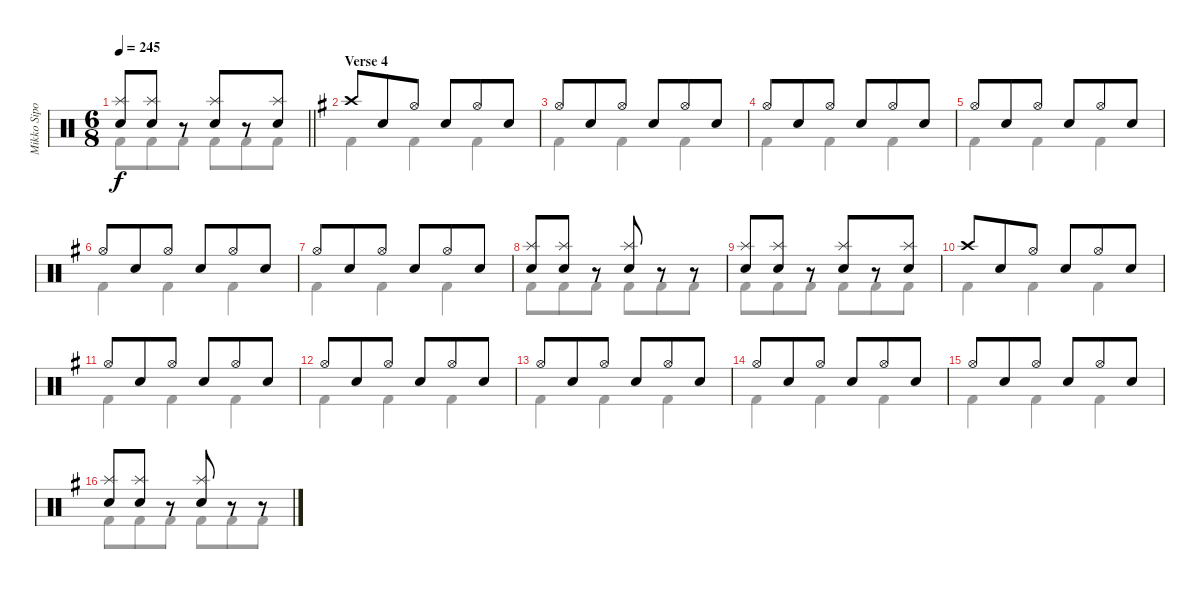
\track ("Mikko Sipola (drums)" "Mikko Sipo") {instrument percussion}
\staff {score}
\articulation defaults
\voice
\ts (6 8)
\tempo 245
\clef neutral
\barLineRight lightlight
\ks aminor
("Splash (hit)" "Snare (hit) 2").8{dy f} ("Splash (hit)" "Snare (hit) 2").8 r.8 ("Splash (hit)" "Snare (hit) 2").8 r.8 ("Splash (hit)" "Snare (hit) 2").8 |
\section ("" "Verse 4")
\ks eminor "Crash high (hit)".8 "Snare (hit) 2".8 "Hi-Hat (open)".8 "Snare (hit) 2".8 "Hi-Hat (open)".8 "Snare (hit) 2".8
|
"Hi-Hat (open)".8 "Snare (hit) 2".8 "Hi-Hat (open)".8 "Snare (hit) 2".8 "Hi-Hat (open)".8 "Snare (hit) 2".8 |
"Hi-Hat (open)".8 "Snare (hit) 2".8 "Hi-Hat (open)".8 "Snare (hit) 2".8 "Hi-Hat (open)".8 "Snare (hit) 2".8 |
"Hi-Hat (open)".8 "Snare (hit) 2".8 "Hi-Hat (open)".8 "Snare (hit) 2".8 "Hi-Hat (open)".8 "Snare (hit) 2".8 |
"Hi-Hat (open)".8 "Snare (hit) 2".8 "Hi-Hat (open)".8 "Snare (hit) 2".8 "Hi-Hat (open)".8 "Snare (hit) 2".8 |
"Hi-Hat (open)".8 "Snare (hit) 2".8 "Hi-Hat (open)".8 "Snare (hit) 2".8 "Hi-Hat (open)".8 "Snare (hit) 2".8 |
("Splash (hit)" "Snare (hit) 2").8 ("Splash (hit)" "Snare (hit) 2").8 r.8 ("Splash (hit)" "Snare (hit) 2").8 r.8 r.8 |
("Splash (hit)" "Snare (hit) 2").8 ("Splash (hit)" "Snare (hit) 2").8 r.8 ("Splash (hit)" "Snare (hit) 2").8 r.8 ("Splash (hit)" "Snare (hit) 2").8 |
"Crash high (hit)".8 "Snare (hit) 2".8 "Hi-Hat (open)".8 "Snare (hit) 2".8 "Hi-Hat (open)".8 "Snare (hit) 2".8 |
"Hi-Hat (open)".8 "Snare (hit) 2".8 "Hi-Hat (open)".8 "Snare (hit) 2".8 "Hi-Hat (open)".8 "Snare (hit) 2".8 |
"Hi-Hat (open)".8 "Snare (hit) 2".8 "Hi-Hat (open)".8 "Snare (hit) 2".8 "Hi-Hat (open)".8 "Snare (hit) 2".8 |
"Hi-Hat (open)".8 "Snare (hit) 2".8 "Hi-Hat (open)".8 "Snare (hit) 2".8 "Hi-Hat (open)".8 "Snare (hit) 2".8 |
"Hi-Hat (open)".8 "Snare (hit) 2".8 "Hi-Hat (open)".8 "Snare (hit) 2".8 "Hi-Hat (open)".8 "Snare (hit) 2".8 |
"Hi-Hat (open)".8 "Snare (hit) 2".8 "Hi-Hat (open)".8 "Snare (hit) 2".8 "Hi-Hat (open)".8 "Snare (hit) 2".8 |
("Splash (hit)" "Snare (hit) 2").8 ("Splash (hit)" "Snare (hit) 2").8 r.8 ("Splash (hit)" "Snare (hit) 2").8 r.8 r.8
\voice
\clef neutral
\ottava regular
\simile none
\barLineRight lightlight
\ks aminor "Kick (hit) 2".8{dy f} "Kick (hit) 2".8 "Kick (hit) 2".8 "Kick (hit) 2".8 "Kick (hit) 2".8 "Kick (hit) 2".8
|
\ks eminor "Kick (hit) 2".4 "Kick (hit) 2".4 "Kick (hit) 2".4
|
"Kick (hit) 2".4 "Kick (hit) 2".4 "Kick (hit) 2".4 |
"Kick (hit) 2".4 "Kick (hit) 2".4 "Kick (hit) 2".4 |
"Kick (hit) 2".4 "Kick (hit) 2".4 "Kick (hit) 2".4 |
"Kick (hit) 2".4 "Kick (hit) 2".4 "Kick (hit) 2".4 |
"Kick (hit) 2".4 "Kick (hit) 2".4 "Kick (hit) 2".4 |
"Kick (hit) 2".8 "Kick (hit) 2".8 "Kick (hit) 2".8 "Kick (hit) 2".8 "Kick (hit) 2".8 "Kick (hit) 2".8 |
"Kick (hit) 2".8 "Kick (hit) 2".8 "Kick (hit) 2".8 "Kick (hit) 2".8 "Kick (hit) 2".8 "Kick (hit) 2".8 |
"Kick (hit) 2".4 "Kick (hit) 2".4 "Kick (hit) 2".4 |
"Kick (hit) 2".4 "Kick (hit) 2".4 "Kick (hit) 2".4 |
"Kick (hit) 2".4 "Kick (hit) 2".4 "Kick (hit) 2".4 |
"Kick (hit) 2".4 "Kick (hit) 2".4 "Kick (hit) 2".4 |
"Kick (hit) 2".4 "Kick (hit) 2".4 "Kick (hit) 2".4 |
"Kick (hit) 2".4 "Kick (hit) 2".4 "Kick (hit) 2".4 |
"Kick (hit) 2".8 "Kick (hit) 2".8 "Kick (hit) 2".8 "Kick (hit) 2".8 "Kick (hit) 2".8 "Kick (hit) 2".8
